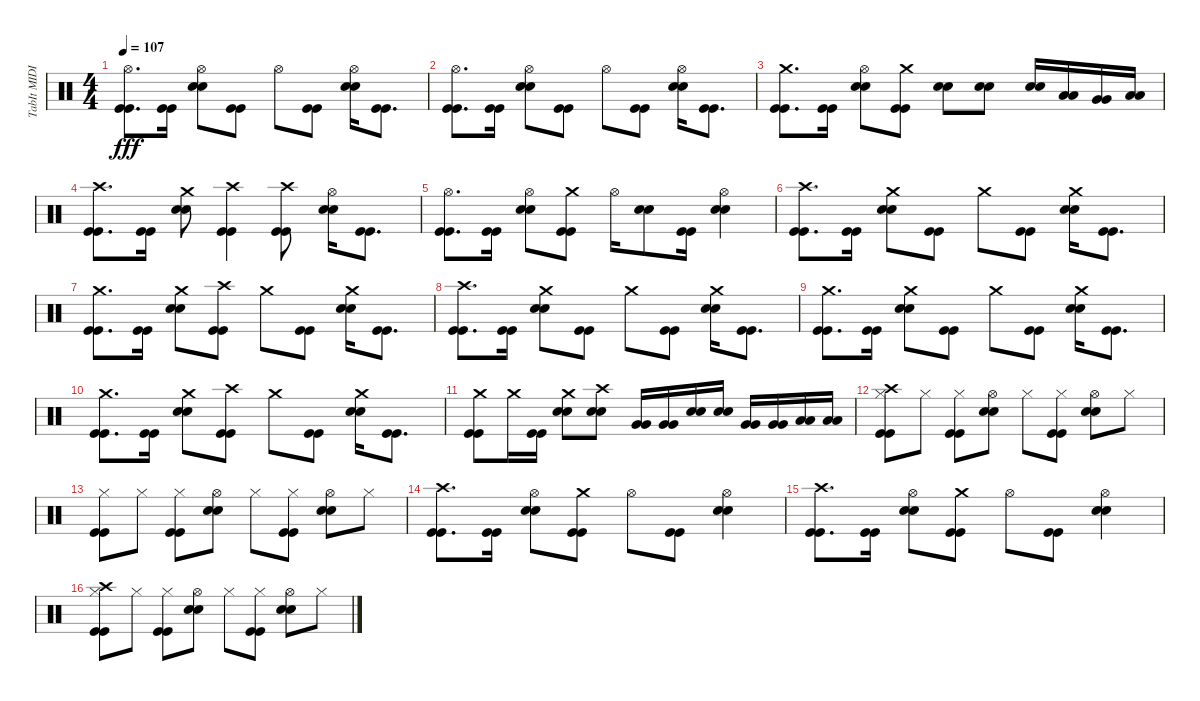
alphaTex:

\track ("TabIt MIDI - Track 5" "TabIt MIDI") {instrument percussion}
\staff {score}
\articulation defaults
\ts (4 4)
\tempo 107
\clef neutral
\ks c
("Kick (hit)" "Kick (hit)" "Hi-Hat (open)").8{d dy fff} ("Kick (hit)" "Kick (hit)").16 ("Snare (hit) 2" "Snare (hit) 2" "Hi-Hat (open)").8 ("Kick (hit)" "Kick (hit)").8 "Hi-Hat (open)".8 ("Kick (hit)" "Kick (hit)").8 ("Snare (hit) 2" "Snare (hit) 2" "Hi-Hat (open)").16 ("Kick (hit)" "Kick (hit)").8{d} |
("Kick (hit)" "Kick (hit)" "Hi-Hat (open)").8{d} ("Kick (hit)" "Kick (hit)").16 ("Snare (hit) 2" "Snare (hit) 2" "Hi-Hat (open)").8 ("Kick (hit)" "Kick (hit)").8 "Hi-Hat (open)".8 ("Kick (hit)" "Kick (hit)").8 ("Snare (hit) 2" "Snare (hit) 2" "Hi-Hat (open)").16 ("Kick (hit)" "Kick (hit)").8{d} |
("Kick (hit)" "Kick (hit)" "Crash medium (hit)").8{d} ("Kick (hit)" "Kick (hit)").16 ("Snare (hit) 2" "Snare (hit) 2" "Hi-Hat (open)").8 ("Kick (hit)" "Kick (hit)" "Crash medium (hit)").8 ("Snare (hit) 2" "Snare (hit) 2").8 ("Snare (hit) 2" "Snare (hit) 2").8 ("Snare (hit) 2" "Snare (hit) 2").16 ("Low Tom (hit)" "Low Tom (hit)").16 ("Very Low Tom (hit)" "Very Low Tom (hit)").16 ("Low Floor Tom (hit)" "Low Floor Tom (hit)").16 |
("Kick (hit)" "Kick (hit)" "Crash high (hit)").8{d} ("Kick (hit)" "Kick (hit)").16 ("Snare (hit) 2" "Snare (hit) 2" "Crash medium (hit)").8 ("Kick (hit)" "Kick (hit)" "Crash high (hit)").4 ("Kick (hit)" "Kick (hit)" "Crash high (hit)").8 ("Snare (hit) 2" "Snare (hit) 2" "Hi-Hat (open)").16 ("Kick (hit)" "Kick (hit)").8{d} |
("Kick (hit)" "Kick (hit)" "Hi-Hat (open)").8{d} ("Kick (hit)" "Kick (hit)").16 ("Snare (hit) 2" "Snare (hit) 2" "Hi-Hat (open)").8 ("Kick (hit)" "Kick (hit)" "Crash medium (hit)").8 "Hi-Hat (open)".16 ("Snare (hit) 2" "Snare (hit) 2").8 ("Kick (hit)" "Kick (hit)").16 ("Snare (hit) 2" "Snare (hit) 2" "Hi-Hat (open)").4 |
("Kick (hit)" "Kick (hit)" "Crash high (hit)").8{d} ("Kick (hit)" "Kick (hit)").16 ("Snare (hit) 2" "Snare (hit) 2" "Crash medium (hit)").8 ("Kick (hit)" "Kick (hit)").8 "Crash medium (hit)".8 ("Kick (hit)" "Kick (hit)").8 ("Snare (hit) 2" "Snare (hit) 2" "Crash medium (hit)").16 ("Kick (hit)" "Kick (hit)").8{d} |
("Kick (hit)" "Kick (hit)" "Crash medium (hit)").8{d} ("Kick (hit)" "Kick (hit)").16 ("Snare (hit) 2" "Snare (hit) 2" "Crash medium (hit)").8 ("Kick (hit)" "Kick (hit)" "Crash high (hit)").8 "Crash medium (hit)".8 ("Kick (hit)" "Kick (hit)").8 ("Snare (hit) 2" "Snare (hit) 2" "Crash medium (hit)").16 ("Kick (hit)" "Kick (hit)").8{d} |
("Kick (hit)" "Kick (hit)" "Crash high (hit)").8{d} ("Kick (hit)" "Kick (hit)").16 ("Snare (hit) 2" "Snare (hit) 2" "Crash medium (hit)").8 ("Kick (hit)" "Kick (hit)").8 "Crash medium (hit)".8 ("Kick (hit)" "Kick (hit)").8 ("Snare (hit) 2" "Snare (hit) 2" "Crash medium (hit)").16 ("Kick (hit)" "Kick (hit)").8{d} |
("Kick (hit)" "Kick (hit)" "Crash medium (hit)").8{d} ("Kick (hit)" "Kick (hit)").16 ("Snare (hit) 2" "Snare (hit) 2" "Crash medium (hit)").8 ("Kick (hit)" "Kick (hit)").8 "Crash medium (hit)".8 ("Kick (hit)" "Kick (hit)").8 ("Snare (hit) 2" "Snare (hit) 2" "Crash medium (hit)").16 ("Kick (hit)" "Kick (hit)").8{d} |
("Kick (hit)" "Kick (hit)" "Crash medium (hit)").8{d} ("Kick (hit)" "Kick (hit)").16 ("Snare (hit) 2" "Snare (hit) 2" "Crash medium (hit)").8 ("Kick (hit)" "Kick (hit)" "Crash high (hit)").8 "Crash medium (hit)".8 ("Kick (hit)" "Kick (hit)").8 ("Snare (hit) 2" "Snare (hit) 2" "Crash medium (hit)").16 ("Kick (hit)" "Kick (hit)").8{d} |
("Kick (hit)" "Kick (hit)" "Crash medium (hit)").8 "Crash medium (hit)".16 ("Kick (hit)" "Kick (hit)").16 ("Snare (hit) 2" "Snare (hit) 2" "Crash medium (hit)").8 ("Snare (hit) 2" "Snare (hit) 2" "Crash high (hit)").8 ("Very Low Tom (hit)" "Very Low Tom (hit)").16 ("Very Low Tom (hit)" "Very Low Tom (hit)").16 ("Snare (hit) 2" "Snare (hit) 2").16 ("Snare (hit) 2" "Snare (hit) 2").16 ("Very Low Tom (hit)" "Very Low Tom (hit)").16 ("Very Low Tom (hit)" "Very Low Tom (hit)").16 ("Low Floor Tom (hit)" "Low Floor Tom (hit)").16 ("Low Floor Tom (hit)" "Low Floor Tom (hit)").16 |
("Kick (hit)" "Kick (hit)" "Hi-Hat (closed)" "Crash high (hit)").8 "Hi-Hat (closed)".8 ("Kick (hit)" "Kick (hit)" "Hi-Hat (closed)").8 ("Snare (hit) 2" "Snare (hit) 2" "Hi-Hat (open)").8 "Hi-Hat (closed)".8 ("Kick (hit)" "Kick (hit)" "Hi-Hat (closed)").8 ("Snare (hit) 2" "Snare (hit) 2" "Hi-Hat (open)").8 "Hi-Hat (closed)".8 |
("Kick (hit)" "Kick (hit)" "Hi-Hat (closed)").8 "Hi-Hat (closed)".8 ("Kick (hit)" "Kick (hit)" "Hi-Hat (closed)").8 ("Snare (hit) 2" "Snare (hit) 2" "Hi-Hat (open)").8 "Hi-Hat (closed)".8 ("Kick (hit)" "Kick (hit)" "Hi-Hat (closed)").8 ("Snare (hit) 2" "Snare (hit) 2" "Hi-Hat (open)").8 "Hi-Hat (closed)".8 |
("Kick (hit)" "Kick (hit)" "Crash high (hit)").8{d} ("Kick (hit)" "Kick (hit)").16 ("Snare (hit) 2" "Snare (hit) 2" "Hi-Hat (open)").8 ("Kick (hit)" "Kick (hit)" "Crash medium (hit)").8 "Hi-Hat (open)".8 ("Kick (hit)" "Kick (hit)").8 ("Snare (hit) 2" "Snare (hit) 2" "Hi-Hat (open)").4 |
("Kick (hit)" "Kick (hit)" "Crash high (hit)").8{d} ("Kick (hit)" "Kick (hit)").16 ("Snare (hit) 2" "Snare (hit) 2" "Hi-Hat (open)").8 ("Kick (hit)" "Kick (hit)" "Crash medium (hit)").8 "Hi-Hat (open)".8 ("Kick (hit)" "Kick (hit)").8 ("Snare (hit) 2" "Snare (hit) 2" "Hi-Hat (open)").4 |
("Kick (hit)" "Kick (hit)" "Hi-Hat (closed)" "Crash high (hit)").8 "Hi-Hat (closed)".8 ("Kick (hit)" "Kick (hit)" "Hi-Hat (closed)").8 ("Snare (hit) 2" "Snare (hit) 2" "Hi-Hat (open)").8 "Hi-Hat (closed)".8 ("Kick (hit)" "Kick (hit)" "Hi-Hat (closed)").8 ("Snare (hit) 2" "Snare (hit) 2" "Hi-Hat (open)").8 "Hi-Hat (closed)".8
